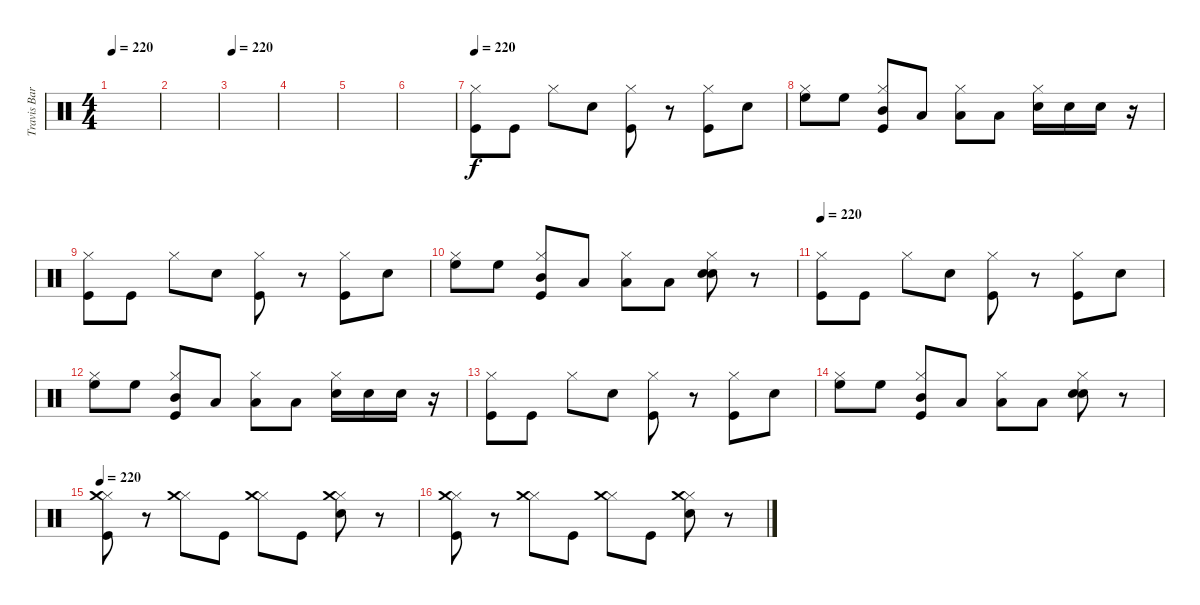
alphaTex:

\track ("Travis Barker" "Travis Bar") {instrument percussion}
\staff {score}
\articulation defaults
\ts (4 4)
\tempo 220
\clef neutral
\ks c
|
|
\tempo 220
|
|
|
|
\tempo 220
("Kick (hit)" "Hi-Hat (closed)").8 "Kick (hit)".8 "Hi-Hat (closed)".8 "Electric Snare (hit)".8 ("Kick (hit)" "Hi-Hat (closed)").8 r.8 ("Kick (hit)" "Hi-Hat (closed)").8 "Electric Snare (hit)".8 |
("High Floor Tom (hit)" "Hi-Hat (closed)").8 "High Floor Tom (hit)".8 ("Kick (hit)" "Mid Tom (hit)" "Hi-Hat (closed)").8 "Low Tom (hit)".8 ("Low Floor Tom (hit)" "Hi-Hat (closed)").8 "Low Floor Tom (hit)".8 ("Electric Snare (hit)" "Hi-Hat (closed)").16 "Electric Snare (hit)".16 "Electric Snare (hit)".16 r.16 |
("Kick (hit)" "Hi-Hat (closed)").8 "Kick (hit)".8 "Hi-Hat (closed)".8 "Electric Snare (hit)".8 ("Kick (hit)" "Hi-Hat (closed)").8 r.8 ("Kick (hit)" "Hi-Hat (closed)").8 "Electric Snare (hit)".8 |
("High Floor Tom (hit)" "Hi-Hat (closed)").8 "High Floor Tom (hit)".8 ("Kick (hit)" "Mid Tom (hit)" "Hi-Hat (closed)").8 "Low Tom (hit)".8 ("Low Floor Tom (hit)" "Hi-Hat (closed)").8 "Low Floor Tom (hit)".8 ("Electric Snare (hit)" "Electric Snare (hit)" "Hi-Hat (closed)").8 r.8 |
\tempo 220
("Kick (hit)" "Hi-Hat (closed)").8 "Kick (hit)".8 "Hi-Hat (closed)".8 "Electric Snare (hit)".8 ("Kick (hit)" "Hi-Hat (closed)").8 r.8 ("Kick (hit)" "Hi-Hat (closed)").8 "Electric Snare (hit)".8 |
("High Floor Tom (hit)" "Hi-Hat (closed)").8 "High Floor Tom (hit)".8 ("Kick (hit)" "Mid Tom (hit)" "Hi-Hat (closed)").8 "Low Tom (hit)".8 ("Low Floor Tom (hit)" "Hi-Hat (closed)").8 "Low Floor Tom (hit)".8 ("Electric Snare (hit)" "Hi-Hat (closed)").16 "Electric Snare (hit)".16 "Electric Snare (hit)".16 r.16 |
("Kick (hit)" "Hi-Hat (closed)").8 "Kick (hit)".8 "Hi-Hat (closed)".8 "Electric Snare (hit)".8 ("Kick (hit)" "Hi-Hat (closed)").8 r.8 ("Kick (hit)" "Hi-Hat (closed)").8 "Electric Snare (hit)".8 |
("High Floor Tom (hit)" "Hi-Hat (closed)").8 "High Floor Tom (hit)".8 ("Kick (hit)" "Mid Tom (hit)" "Hi-Hat (closed)").8 "Low Tom (hit)".8 ("Low Floor Tom (hit)" "Hi-Hat (closed)").8 "Low Floor Tom (hit)".8 ("Electric Snare (hit)" "Electric Snare (hit)" "Hi-Hat (closed)").8 r.8 |
\tempo 220
("Kick (hit)" "Hi-Hat (closed)" "Crash medium (hit)").8 r.8 ("Hi-Hat (closed)" "Crash medium (hit)").8 "Kick (hit)".8 ("Hi-Hat (closed)" "Crash medium (hit)").8 "Kick (hit)".8 ("Electric Snare (hit)" "Hi-Hat (closed)" "Crash medium (hit)").8 r.8 |
("Kick (hit)" "Hi-Hat (closed)" "Crash medium (hit)").8 r.8 ("Hi-Hat (closed)" "Crash medium (hit)").8 "Kick (hit)".8 ("Hi-Hat (closed)" "Crash medium (hit)").8 "Kick (hit)".8 ("Electric Snare (hit)" "Hi-Hat (closed)" "Crash medium (hit)").8 r.8
